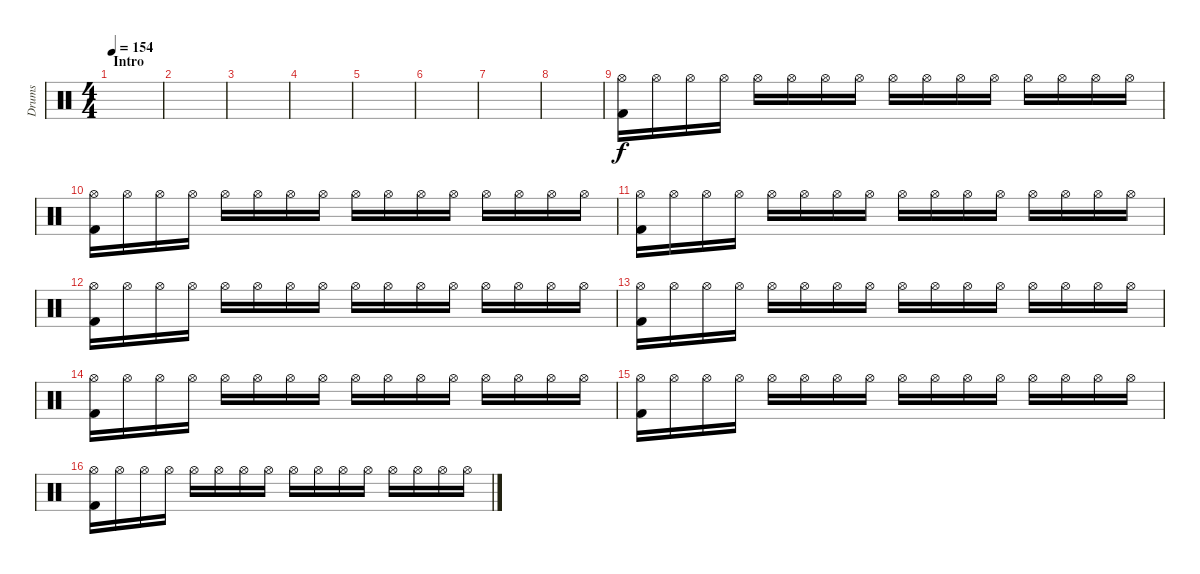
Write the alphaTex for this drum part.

\track ("Drums" "Drums") {instrument percussion}
\staff {score}
\articulation defaults
\ts (4 4)
\section ("" "Intro")
\tempo 154
\clef neutral
\ks c
|
|
|
|
|
|
|
|
("Hi-Hat (open)" "Kick (hit) 2").16 "Hi-Hat (open)".16 "Hi-Hat (open)".16 "Hi-Hat (open)".16 "Hi-Hat (open)".16 "Hi-Hat (open)".16 "Hi-Hat (open)".16 "Hi-Hat (open)".16 "Hi-Hat (open)".16 "Hi-Hat (open)".16 "Hi-Hat (open)".16 "Hi-Hat (open)".16 "Hi-Hat (open)".16 "Hi-Hat (open)".16 "Hi-Hat (open)".16 "Hi-Hat (open)".16 |
("Hi-Hat (open)" "Kick (hit) 2").16 "Hi-Hat (open)".16 "Hi-Hat (open)".16 "Hi-Hat (open)".16 "Hi-Hat (open)".16 "Hi-Hat (open)".16 "Hi-Hat (open)".16 "Hi-Hat (open)".16 "Hi-Hat (open)".16 "Hi-Hat (open)".16 "Hi-Hat (open)".16 "Hi-Hat (open)".16 "Hi-Hat (open)".16 "Hi-Hat (open)".16 "Hi-Hat (open)".16 "Hi-Hat (open)".16 |
("Hi-Hat (open)" "Kick (hit) 2").16 "Hi-Hat (open)".16 "Hi-Hat (open)".16 "Hi-Hat (open)".16 "Hi-Hat (open)".16 "Hi-Hat (open)".16 "Hi-Hat (open)".16 "Hi-Hat (open)".16 "Hi-Hat (open)".16 "Hi-Hat (open)".16 "Hi-Hat (open)".16 "Hi-Hat (open)".16 "Hi-Hat (open)".16 "Hi-Hat (open)".16 "Hi-Hat (open)".16 "Hi-Hat (open)".16 |
("Hi-Hat (open)" "Kick (hit) 2").16 "Hi-Hat (open)".16 "Hi-Hat (open)".16 "Hi-Hat (open)".16 "Hi-Hat (open)".16 "Hi-Hat (open)".16 "Hi-Hat (open)".16 "Hi-Hat (open)".16 "Hi-Hat (open)".16 "Hi-Hat (open)".16 "Hi-Hat (open)".16 "Hi-Hat (open)".16 "Hi-Hat (open)".16 "Hi-Hat (open)".16 "Hi-Hat (open)".16 "Hi-Hat (open)".16 |
("Hi-Hat (open)" "Kick (hit) 2").16 "Hi-Hat (open)".16 "Hi-Hat (open)".16 "Hi-Hat (open)".16 "Hi-Hat (open)".16 "Hi-Hat (open)".16 "Hi-Hat (open)".16 "Hi-Hat (open)".16 "Hi-Hat (open)".16 "Hi-Hat (open)".16 "Hi-Hat (open)".16 "Hi-Hat (open)".16 "Hi-Hat (open)".16 "Hi-Hat (open)".16 "Hi-Hat (open)".16 "Hi-Hat (open)".16 |
("Hi-Hat (open)" "Kick (hit) 2").16 "Hi-Hat (open)".16 "Hi-Hat (open)".16 "Hi-Hat (open)".16 "Hi-Hat (open)".16 "Hi-Hat (open)".16 "Hi-Hat (open)".16 "Hi-Hat (open)".16 "Hi-Hat (open)".16 "Hi-Hat (open)".16 "Hi-Hat (open)".16 "Hi-Hat (open)".16 "Hi-Hat (open)".16 "Hi-Hat (open)".16 "Hi-Hat (open)".16 "Hi-Hat (open)".16 |
("Hi-Hat (open)" "Kick (hit) 2").16 "Hi-Hat (open)".16 "Hi-Hat (open)".16 "Hi-Hat (open)".16 "Hi-Hat (open)".16 "Hi-Hat (open)".16 "Hi-Hat (open)".16 "Hi-Hat (open)".16 "Hi-Hat (open)".16 "Hi-Hat (open)".16 "Hi-Hat (open)".16 "Hi-Hat (open)".16 "Hi-Hat (open)".16 "Hi-Hat (open)".16 "Hi-Hat (open)".16 "Hi-Hat (open)".16 |
("Hi-Hat (open)" "Kick (hit) 2").16 "Hi-Hat (open)".16 "Hi-Hat (open)".16 "Hi-Hat (open)".16 "Hi-Hat (open)".16 "Hi-Hat (open)".16 "Hi-Hat (open)".16 "Hi-Hat (open)".16 "Hi-Hat (open)".16 "Hi-Hat (open)".16 "Hi-Hat (open)".16 "Hi-Hat (open)".16 "Hi-Hat (open)".16 "Hi-Hat (open)".16 "Hi-Hat (open)".16 "Hi-Hat (open)".16
